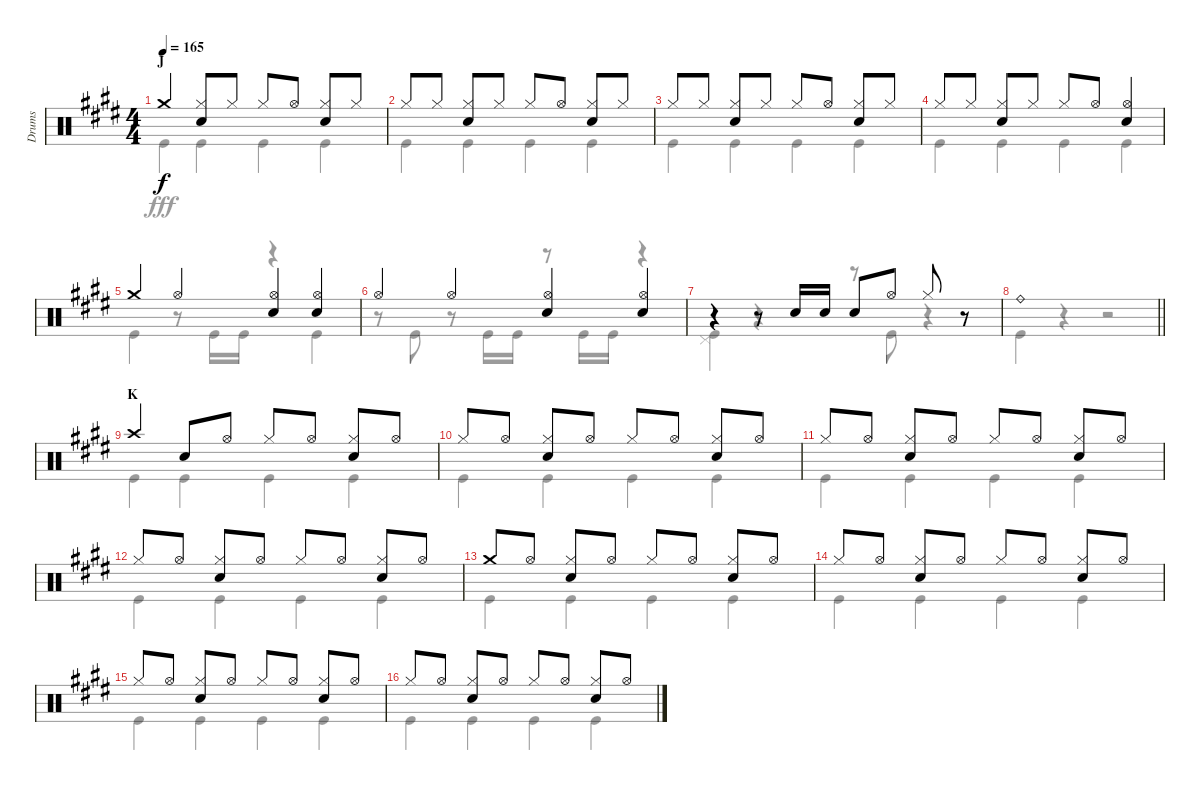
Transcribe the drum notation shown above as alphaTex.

\track ("Drums" "Drums") {instrument percussion}
\staff {score}
\articulation defaults
\voice
\ts (4 4)
\section ("" "J")
\tempo 165
\clef neutral
\ks e "Crash medium (hit)".4{dy f}
("Hi-Hat (closed)" "Snare (hit) 2").8 "Hi-Hat (closed)".8 "Hi-Hat (closed)".8 "Hi-Hat (open)".8 ("Hi-Hat (closed)" "Snare (hit) 2").8 "Hi-Hat (closed)".8 |
"Hi-Hat (closed)".8 "Hi-Hat (closed)".8 ("Hi-Hat (closed)" "Snare (hit) 2").8 "Hi-Hat (closed)".8 "Hi-Hat (closed)".8 "Hi-Hat (open)".8 ("Hi-Hat (closed)" "Snare (hit) 2").8 "Hi-Hat (closed)".8 |
"Hi-Hat (closed)".8 "Hi-Hat (closed)".8 ("Hi-Hat (closed)" "Snare (hit) 2").8 "Hi-Hat (closed)".8 "Hi-Hat (closed)".8 "Hi-Hat (open)".8 ("Hi-Hat (closed)" "Snare (hit) 2").8 "Hi-Hat (closed)".8 |
"Hi-Hat (closed)".8 "Hi-Hat (closed)".8 ("Hi-Hat (closed)" "Snare (hit) 2").8 "Hi-Hat (closed)".8 "Hi-Hat (closed)".8 "Hi-Hat (open)".8 ("Hi-Hat (open)" "Snare (hit) 2").4 |
"Crash medium (hit)".4 "Hi-Hat (open)".4 ("Hi-Hat (open)" "Snare (hit) 2").4 ("Hi-Hat (open)" "Snare (hit) 2").4 |
"Hi-Hat (open)".4 "Hi-Hat (open)".4 ("Hi-Hat (open)" "Snare (hit) 2").4 ("Hi-Hat (open)" "Snare (hit) 2").4 |
r.4 r.8 "Snare (hit) 2".16 "Snare (hit) 2".16 "Snare (hit) 2".8 "Hi-Hat (open)".8 "Hi-Hat (closed)".8 r.8 |
\barLineRight lightlight "Ride (bell)".1
|
\section ("" "K")
"Crash high (hit)".4 "Snare (hit) 2".8 "Hi-Hat (open)".8 "Hi-Hat (closed)".8 "Hi-Hat (open)".8 ("Hi-Hat (closed)" "Snare (hit) 2").8 "Hi-Hat (open)".8 |
"Hi-Hat (closed)".8 "Hi-Hat (open)".8 ("Hi-Hat (closed)" "Snare (hit) 2").8 "Hi-Hat (open)".8 "Hi-Hat (closed)".8 "Hi-Hat (open)".8 ("Hi-Hat (closed)" "Snare (hit) 2").8 "Hi-Hat (open)".8 |
"Hi-Hat (closed)".8 "Hi-Hat (open)".8 ("Hi-Hat (closed)" "Snare (hit) 2").8 "Hi-Hat (open)".8 "Hi-Hat (closed)".8 "Hi-Hat (open)".8 ("Hi-Hat (closed)" "Snare (hit) 2").8 "Hi-Hat (open)".8 |
"Hi-Hat (closed)".8 "Hi-Hat (open)".8 ("Hi-Hat (closed)" "Snare (hit) 2").8 "Hi-Hat (open)".8 "Hi-Hat (closed)".8 "Hi-Hat (open)".8 ("Hi-Hat (closed)" "Snare (hit) 2").8 "Hi-Hat (open)".8 |
"Crash medium (hit)".8 "Hi-Hat (open)".8 ("Hi-Hat (closed)" "Snare (hit) 2").8 "Hi-Hat (open)".8 "Hi-Hat (closed)".8 "Hi-Hat (open)".8 ("Hi-Hat (closed)" "Snare (hit) 2").8 "Hi-Hat (open)".8 |
"Hi-Hat (closed)".8 "Hi-Hat (open)".8 ("Hi-Hat (closed)" "Snare (hit) 2").8 "Hi-Hat (open)".8 "Hi-Hat (closed)".8 "Hi-Hat (open)".8 ("Hi-Hat (closed)" "Snare (hit) 2").8 "Hi-Hat (open)".8 |
"Hi-Hat (closed)".8 "Hi-Hat (open)".8 ("Hi-Hat (closed)" "Snare (hit) 2").8 "Hi-Hat (open)".8 "Hi-Hat (closed)".8 "Hi-Hat (open)".8 ("Hi-Hat (closed)" "Snare (hit) 2").8 "Hi-Hat (open)".8 |
"Hi-Hat (closed)".8 "Hi-Hat (open)".8 ("Hi-Hat (closed)" "Snare (hit) 2").8 "Hi-Hat (open)".8 "Hi-Hat (closed)".8 "Hi-Hat (open)".8 ("Hi-Hat (closed)" "Snare (hit) 2").8 "Hi-Hat (open)".8
\voice
\clef neutral
\ottava regular
\simile none
\ks e "Kick (hit)".4{dy fff} "Kick (hit)".4 "Kick (hit)".4 "Kick (hit)".4
|
"Kick (hit)".4 "Kick (hit)".4 "Kick (hit)".4 "Kick (hit)".4 |
"Kick (hit)".4 "Kick (hit)".4 "Kick (hit)".4 "Kick (hit)".4 |
"Kick (hit)".4 "Kick (hit)".4 "Kick (hit)".4 "Kick (hit)".4 |
"Kick (hit)".4 r.8 "Kick (hit)".16 "Kick (hit)".16 r.4 "Kick (hit)".4 |
r.8 "Kick (hit)".8 r.8 "Kick (hit)".16 "Kick (hit)".16 r.8 "Kick (hit)".16 "Kick (hit)".16 r.4 |
("Pedal Hi-Hat (hit)" "Kick (hit)").4 r.4 r.8 "Kick (hit)".8 r.4 |
\barLineRight lightlight "Kick (hit)".4
r.4 r.2 |
"Kick (hit)".4 "Kick (hit)".4 "Kick (hit)".4 "Kick (hit)".4 |
"Kick (hit)".4 "Kick (hit)".4 "Kick (hit)".4 "Kick (hit)".4 |
"Kick (hit)".4 "Kick (hit)".4 "Kick (hit)".4 "Kick (hit)".4 |
"Kick (hit)".4 "Kick (hit)".4 "Kick (hit)".4 "Kick (hit)".4 |
"Kick (hit)".4 "Kick (hit)".4 "Kick (hit)".4 "Kick (hit)".4 |
"Kick (hit)".4 "Kick (hit)".4 "Kick (hit)".4 "Kick (hit)".4 |
"Kick (hit)".4 "Kick (hit)".4 "Kick (hit)".4 "Kick (hit)".4 |
"Kick (hit)".4 "Kick (hit)".4 "Kick (hit)".4 "Kick (hit)".4
